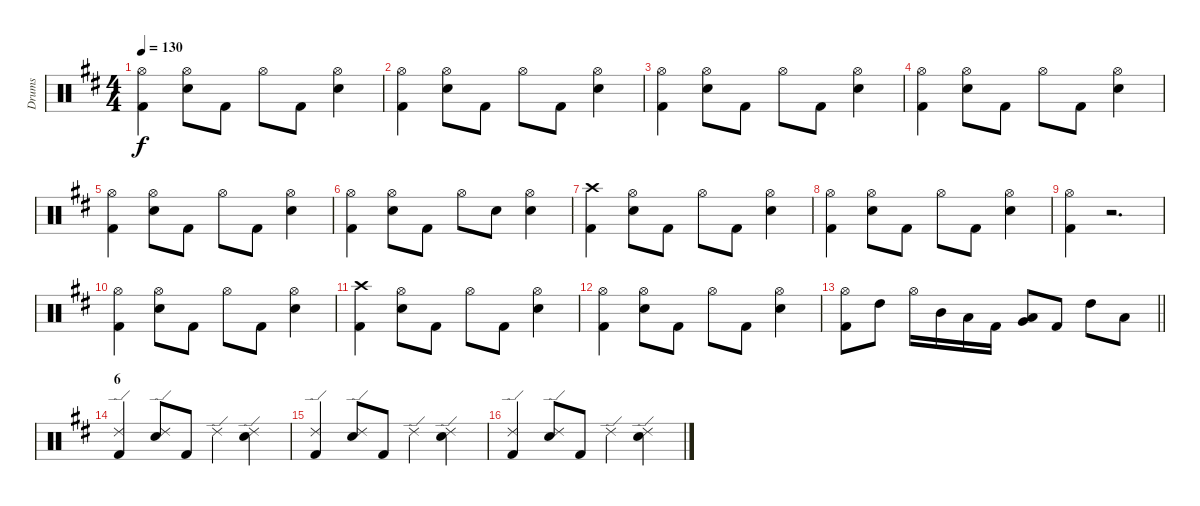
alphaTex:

\track ("Drums" "Drums") {instrument percussion}
\staff {score}
\articulation defaults
\ts (4 4)
\tempo 130
\clef neutral
\ks d
("Kick (hit) 2" "Hi-Hat (open)").4{dy f} ("Hi-Hat (open)" "Electric Snare (hit)").8 "Kick (hit) 2".8 "Hi-Hat (open)".8 "Kick (hit) 2".8 ("Electric Snare (hit)" "Hi-Hat (open)").4 |
("Kick (hit) 2" "Hi-Hat (open)").4 ("Hi-Hat (open)" "Electric Snare (hit)").8 "Kick (hit) 2".8 "Hi-Hat (open)".8 "Kick (hit) 2".8 ("Electric Snare (hit)" "Hi-Hat (open)").4 |
("Kick (hit) 2" "Hi-Hat (open)").4 ("Hi-Hat (open)" "Electric Snare (hit)").8 "Kick (hit) 2".8 "Hi-Hat (open)".8 "Kick (hit) 2".8 ("Electric Snare (hit)" "Hi-Hat (open)").4 |
("Kick (hit) 2" "Hi-Hat (open)").4 ("Hi-Hat (open)" "Electric Snare (hit)").8 "Kick (hit) 2".8 "Hi-Hat (open)".8 "Kick (hit) 2".8 ("Electric Snare (hit)" "Hi-Hat (open)").4 |
("Kick (hit) 2" "Hi-Hat (open)").4 ("Hi-Hat (open)" "Electric Snare (hit)").8 "Kick (hit) 2".8 "Hi-Hat (open)".8 "Kick (hit) 2".8 ("Electric Snare (hit)" "Hi-Hat (open)").4 |
("Kick (hit) 2" "Hi-Hat (open)").4 ("Hi-Hat (open)" "Electric Snare (hit)").8 "Kick (hit) 2".8 "Hi-Hat (open)".8 "Electric Snare (hit)".8 ("Electric Snare (hit)" "Hi-Hat (open)").4 |
("Kick (hit) 2" "Crash high (hit)").4 ("Hi-Hat (open)" "Electric Snare (hit)").8 "Kick (hit) 2".8 "Hi-Hat (open)".8 "Kick (hit) 2".8 ("Electric Snare (hit)" "Hi-Hat (open)").4 |
("Kick (hit) 2" "Hi-Hat (open)").4 ("Hi-Hat (open)" "Electric Snare (hit)").8 "Kick (hit) 2".8 "Hi-Hat (open)".8 "Kick (hit) 2".8 ("Electric Snare (hit)" "Hi-Hat (open)").4 |
("Kick (hit) 2" "Hi-Hat (open)").4 r.2{d} |
("Kick (hit) 2" "Hi-Hat (open)").4 ("Hi-Hat (open)" "Electric Snare (hit)").8 "Kick (hit) 2".8 "Hi-Hat (open)".8 "Kick (hit) 2".8 ("Electric Snare (hit)" "Hi-Hat (open)").4 |
("Kick (hit) 2" "Crash high (hit)").4 ("Hi-Hat (open)" "Electric Snare (hit)").8 "Kick (hit) 2".8 "Hi-Hat (open)".8 "Kick (hit) 2".8 ("Electric Snare (hit)" "Hi-Hat (open)").4 |
("Kick (hit) 2" "Hi-Hat (open)").4 ("Hi-Hat (open)" "Electric Snare (hit)").8 "Kick (hit) 2".8 "Hi-Hat (open)".8 "Kick (hit) 2".8 ("Electric Snare (hit)" "Hi-Hat (open)").4 |
\barLineRight lightlight
("Hi-Hat (open)" "Kick (hit) 2").8 "High Tom (hit)".8 "Hi-Hat (open)".16 "Mid Tom (hit)".16 "Low Tom (hit)".16 "Kick (hit) 2".16 ("Low Tom (hit)" "Very Low Tom (hit)").8 "Kick (hit) 2".8 "High Tom (hit)".8 "Low Tom (hit)".8 |
\section ("" "6")
("Kick (hit) 2" "Ride (edge) 2").4 ("Ride (edge) 2" "Electric Snare (hit)").8 "Kick (hit) 2".8 "Ride (edge) 2".4 ("Electric Snare (hit)" "Ride (edge) 2").4 |
("Kick (hit) 2" "Ride (edge) 2").4 ("Ride (edge) 2" "Electric Snare (hit)").8 "Kick (hit) 2".8 "Ride (edge) 2".4 ("Electric Snare (hit)" "Ride (edge) 2").4 |
("Kick (hit) 2" "Ride (edge) 2").4 ("Ride (edge) 2" "Electric Snare (hit)").8 "Kick (hit) 2".8 "Ride (edge) 2".4 ("Electric Snare (hit)" "Ride (edge) 2").4
